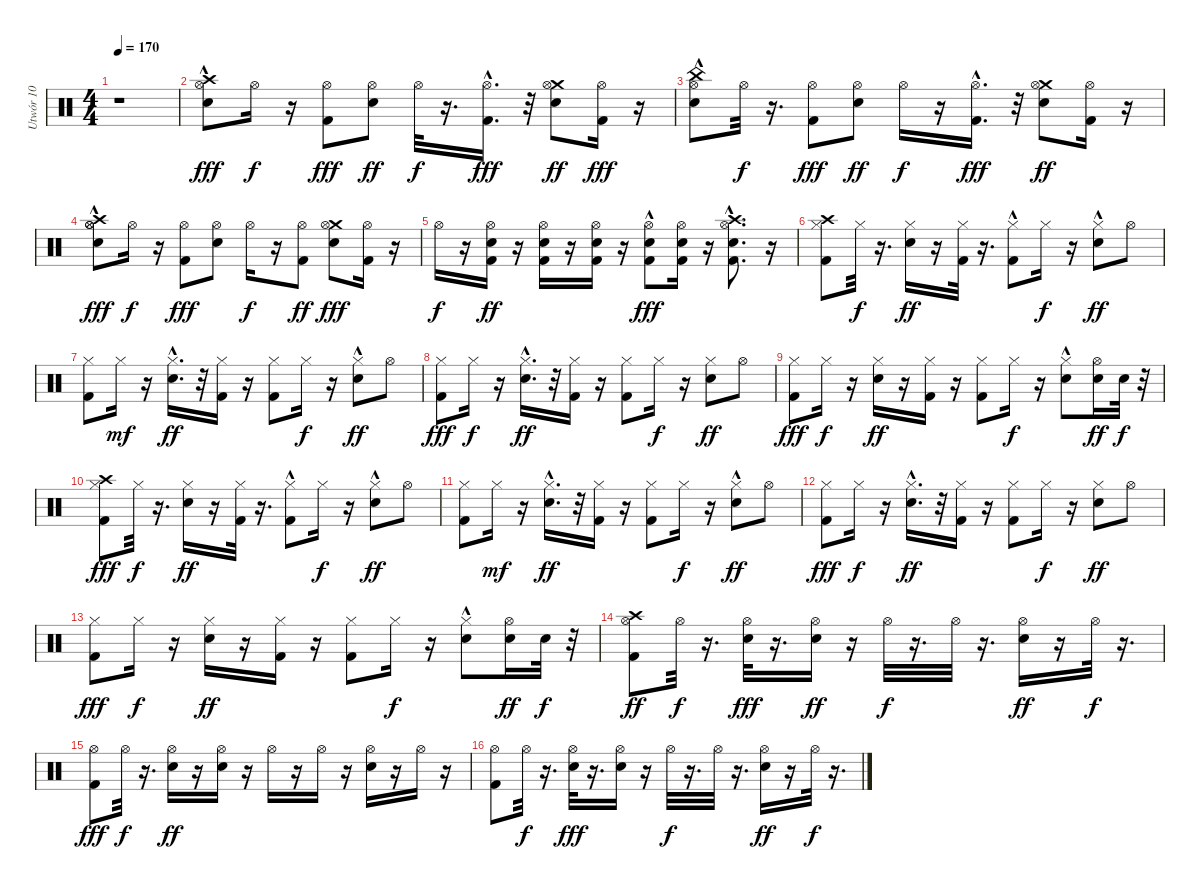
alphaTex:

\track ("Utwór 10" "Utwór 10") {instrument percussion}
\staff {score}
\articulation defaults
\ts (4 4)
\tempo 170
\clef neutral
\ks c
r.1{dy fff} |
("Hi-Hat (open)" "Crash high (hit)"{hac} "Snare (hit) 2").8 "Hi-Hat (open)".16{dy f} r.16 ("Hi-Hat (open)" "Kick (hit) 2").8{dy fff} ("Hi-Hat (open)" "Snare (hit) 2").8{dy ff} "Hi-Hat (open)".32{dy f} r.16{d} ("Hi-Hat (open)" "Kick (hit) 2"{hac}).16{d dy fff} r.32 ("Snare (hit) 2" "Crash medium (hit)" "Hi-Hat (open)").8{dy ff} ("Hi-Hat (open)" "Kick (hit) 2").16{dy fff} r.16 |
("China (hit)"{hac} "Hi-Hat (open)" "Snare (hit) 2").8 "Hi-Hat (open)".32{dy f} r.16{d} ("Kick (hit) 2" "Hi-Hat (open)").8{dy fff} ("Hi-Hat (open)" "Snare (hit) 2").8{dy ff} "Hi-Hat (open)".16{dy f} r.16 ("Kick (hit) 2"{hac} "Hi-Hat (open)").16{d dy fff} r.32 ("Snare (hit) 2" "Crash medium (hit)" "Hi-Hat (open)").8{dy ff} ("Kick (hit) 2" "Hi-Hat (open)").16 r.16 |
("Hi-Hat (open)" "Snare (hit) 2" "Hi-Hat (open)" "Crash high (hit)"{hac}).8{dy fff} "Hi-Hat (open)".16{dy f} r.16 ("Hi-Hat (open)" "Kick (hit) 2").8{dy fff} ("Hi-Hat (open)" "Snare (hit) 2").8 "Hi-Hat (open)".16{dy f} r.16 ("Kick (hit) 2" "Hi-Hat (open)").8{dy ff} ("Crash medium (hit)" "Hi-Hat (open)" "Snare (hit) 2").8{dy fff} ("Kick (hit) 2" "Hi-Hat (open)").16 r.16 |
"Hi-Hat (open)".16{dy f} r.16 ("Kick (hit) 2" "Snare (hit) 2" "Hi-Hat (open)").16{dy ff} r.16 ("Snare (hit) 2" "Kick (hit) 2" "Hi-Hat (open)").16 r.16 ("Snare (hit) 2" "Kick (hit) 2" "Hi-Hat (open)").16 r.16 ("Snare (hit) 2" "Hi-Hat (open)"{hac} "Kick (hit) 2").8{dy fff} ("Hi-Hat (open)" "Kick (hit) 2" "Snare (hit) 2").16 r.16 ("Kick (hit) 2" "Hi-Hat (open)" "Snare (hit) 2" "Crash high (hit)"{hac}).8{d} r.16 |
("Crash high (hit)" "Hi-Hat (closed)" "Kick (hit) 2").8 "Hi-Hat (closed)".32{dy f} r.16{d} ("Hi-Hat (closed)" "Snare (hit) 2").16{dy ff} r.16 ("Kick (hit) 2" "Hi-Hat (closed)").32 r.16{d} ("Kick (hit) 2"{hac} "Hi-Hat (closed)").8 "Hi-Hat (closed)".16{dy f} r.16 ("Snare (hit) 2" "Hi-Hat (closed)"{hac}).8{dy ff} "Hi-Hat (open)".8 |
("Hi-Hat (closed)" "Kick (hit) 2").8 "Hi-Hat (closed)".16{dy mf} r.16 ("Snare (hit) 2"{hac} "Hi-Hat (closed)").16{d dy ff} r.32 ("Hi-Hat (closed)" "Kick (hit) 2").16 r.16 ("Hi-Hat (closed)" "Kick (hit) 2").8 "Hi-Hat (closed)".16{dy f} r.16 ("Snare (hit) 2"{hac} "Hi-Hat (closed)").8{dy ff} "Hi-Hat (open)".8 |
("Hi-Hat (closed)" "Kick (hit) 2").8{dy fff} "Hi-Hat (closed)".16{dy f} r.16 ("Snare (hit) 2"{hac} "Hi-Hat (closed)").16{d dy ff} r.32 ("Hi-Hat (closed)" "Kick (hit) 2").16 r.16 ("Hi-Hat (closed)" "Kick (hit) 2").8 "Hi-Hat (closed)".16{dy f} r.16 ("Hi-Hat (closed)" "Snare (hit) 2").8{dy ff} "Hi-Hat (open)".8 |
("Hi-Hat (closed)" "Kick (hit) 2").8{dy fff} "Hi-Hat (closed)".16{dy f} r.16 ("Snare (hit) 2" "Hi-Hat (closed)").16{dy ff} r.16 ("Kick (hit) 2" "Hi-Hat (closed)").16 r.16 ("Hi-Hat (closed)" "Kick (hit) 2").8 "Hi-Hat (closed)".16{dy f} r.16 ("Snare (hit) 2" "Hi-Hat (closed)"{hac}).8 ("Snare (hit) 2" "Hi-Hat (open)").16{dy ff} "Snare (hit) 2".32{dy f} r.32 |
("Kick (hit) 2" "Crash high (hit)" "Hi-Hat (closed)").8{dy fff} "Hi-Hat (closed)".32{dy f} r.16{d} ("Snare (hit) 2" "Hi-Hat (closed)").16{dy ff} r.16 ("Kick (hit) 2" "Hi-Hat (closed)").32 r.16{d} ("Kick (hit) 2"{hac} "Hi-Hat (closed)").8 "Hi-Hat (closed)".16{dy f} r.16 ("Hi-Hat (closed)"{hac} "Snare (hit) 2").8{dy ff} "Hi-Hat (open)".8 |
("Hi-Hat (closed)" "Kick (hit) 2").8 "Hi-Hat (closed)".16{dy mf} r.16 ("Snare (hit) 2"{hac} "Hi-Hat (closed)").16{d dy ff} r.32 ("Hi-Hat (closed)" "Kick (hit) 2").16 r.16 ("Kick (hit) 2" "Hi-Hat (closed)").8 "Hi-Hat (closed)".16{dy f} r.16 ("Hi-Hat (closed)" "Snare (hit) 2"{hac}).8{dy ff} "Hi-Hat (open)".8 |
("Hi-Hat (closed)" "Kick (hit) 2").8{dy fff} "Hi-Hat (closed)".16{dy f} r.16 ("Hi-Hat (closed)" "Snare (hit) 2"{hac}).16{d dy ff} r.32 ("Hi-Hat (closed)" "Kick (hit) 2").16 r.16 ("Kick (hit) 2" "Hi-Hat (closed)").8 "Hi-Hat (closed)".16{dy f} r.16 ("Snare (hit) 2" "Hi-Hat (closed)").8{dy ff} "Hi-Hat (open)".8 |
("Hi-Hat (closed)" "Kick (hit) 2").8{dy fff} "Hi-Hat (closed)".16{dy f} r.16 ("Hi-Hat (closed)" "Snare (hit) 2").16{dy ff} r.16 ("Kick (hit) 2" "Hi-Hat (closed)").16 r.16 ("Kick (hit) 2" "Hi-Hat (closed)").8 "Hi-Hat (closed)".16{dy f} r.16 ("Hi-Hat (closed)"{hac} "Snare (hit) 2").8 ("Snare (hit) 2" "Hi-Hat (open)").16{dy ff} "Snare (hit) 2".32{dy f} r.32 |
("Crash high (hit)" "Kick (hit) 2" "Hi-Hat (open)").8{dy ff} "Hi-Hat (open)".32{dy f} r.16{d} ("Snare (hit) 2" "Hi-Hat (open)").32{dy fff} r.16{d} ("Snare (hit) 2" "Hi-Hat (open)").16{dy ff} r.16 "Hi-Hat (open)".32{dy f} r.16{d} "Hi-Hat (open)".32 r.16{d} ("Snare (hit) 2" "Hi-Hat (open)").16{dy ff} r.16 "Hi-Hat (open)".32{dy f} r.16{d} |
("Hi-Hat (open)" "Kick (hit) 2").8{dy fff} "Hi-Hat (open)".32{dy f} r.16{d} ("Snare (hit) 2" "Hi-Hat (open)").16{dy ff} r.16 ("Snare (hit) 2" "Hi-Hat (open)").16 r.16 "Hi-Hat (open)".16 r.16 "Hi-Hat (open)".16 r.16 ("Snare (hit) 2" "Hi-Hat (open)").16 r.16 "Hi-Hat (open)".16 r.16 |
("Kick (hit) 2" "Hi-Hat (open)").8 "Hi-Hat (open)".32{dy f} r.16{d} ("Snare (hit) 2" "Hi-Hat (open)").32{dy fff} r.16{d} ("Hi-Hat (open)" "Snare (hit) 2").16 r.16 "Hi-Hat (open)".32{dy f} r.16{d} "Hi-Hat (open)".32 r.16{d} ("Snare (hit) 2" "Hi-Hat (open)").16{dy ff} r.16 "Hi-Hat (open)".32{dy f} r.16{d}
